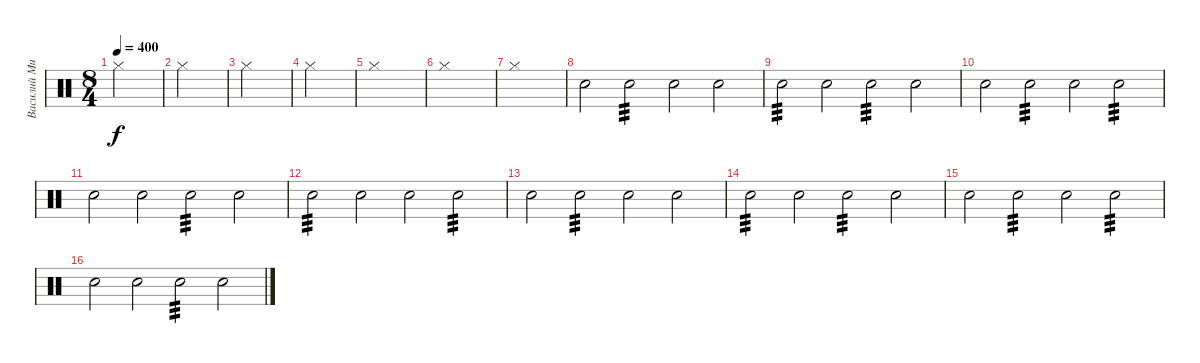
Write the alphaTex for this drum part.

\track ("Василий Михалыч-ударные" "Василий Ми") {instrument percussion}
\staff {score}
\articulation defaults
\ts (8 4)
\tempo 400
\clef neutral
\ks c "Hi-Hat (closed)".2{dy f}
|
"Hi-Hat (closed)".2 |
"Hi-Hat (closed)".2 |
"Hi-Hat (closed)".2 |
"Hi-Hat (closed)".1 |
"Hi-Hat (closed)".1 |
"Hi-Hat (closed)".1 |
"Electric Snare (hit)".2 "Electric Snare (hit)".2{tp 3} "Electric Snare (hit)".2 "Electric Snare (hit)".2 |
"Electric Snare (hit)".2{tp 3} "Electric Snare (hit)".2 "Electric Snare (hit)".2{tp 3} "Electric Snare (hit)".2 |
"Electric Snare (hit)".2 "Electric Snare (hit)".2{tp 3} "Electric Snare (hit)".2 "Electric Snare (hit)".2{tp 3} |
"Electric Snare (hit)".2 "Electric Snare (hit)".2 "Electric Snare (hit)".2{tp 3} "Electric Snare (hit)".2 |
"Electric Snare (hit)".2{tp 3} "Electric Snare (hit)".2 "Electric Snare (hit)".2 "Electric Snare (hit)".2{tp 3} |
"Electric Snare (hit)".2 "Electric Snare (hit)".2{tp 3} "Electric Snare (hit)".2 "Electric Snare (hit)".2 |
"Electric Snare (hit)".2{tp 3} "Electric Snare (hit)".2 "Electric Snare (hit)".2{tp 3} "Electric Snare (hit)".2 |
"Electric Snare (hit)".2 "Electric Snare (hit)".2{tp 3} "Electric Snare (hit)".2 "Electric Snare (hit)".2{tp 3} |
"Electric Snare (hit)".2 "Electric Snare (hit)".2 "Electric Snare (hit)".2{tp 3} "Electric Snare (hit)".2
